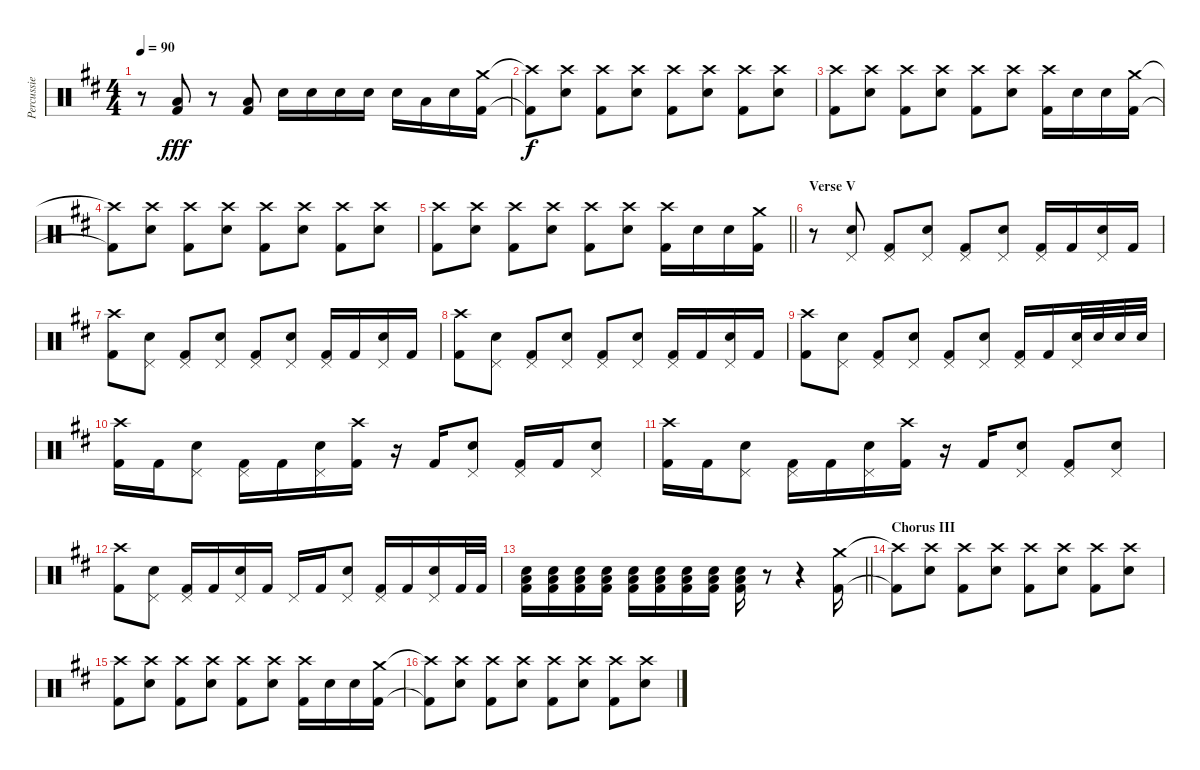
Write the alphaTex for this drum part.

\track ("Percussie" "Percussie") {instrument percussion}
\staff {score}
\articulation defaults
\ts (4 4)
\tempo 90
\clef neutral
\ks bminor
r.8{dy fff} ("Low Floor Tom (hit)" "Kick (hit) 2").8 r.8 ("Low Floor Tom (hit)" "Kick (hit) 2").8 "Electric Snare (hit)".16 "Electric Snare (hit)".16 "Electric Snare (hit)".16 "Electric Snare (hit)".16 "Electric Snare (hit)".16 "Low Floor Tom (hit)".16 "Electric Snare (hit)".16 ("Crash medium (hit)" "Kick (hit) 2").16 |
("Crash high (hit)"{t} "Kick (hit) 2"{t}).8{dy f} ("Crash high (hit)" "Electric Snare (hit)").8 ("Crash high (hit)" "Kick (hit) 2").8 ("Crash high (hit)" "Electric Snare (hit)").8 ("Crash high (hit)" "Kick (hit) 2").8 ("Crash high (hit)" "Electric Snare (hit)").8 ("Crash high (hit)" "Kick (hit) 2").8 ("Crash high (hit)" "Electric Snare (hit)").8 |
("Crash high (hit)" "Kick (hit) 2").8 ("Crash high (hit)" "Electric Snare (hit)").8 ("Crash high (hit)" "Kick (hit) 2").8 ("Crash high (hit)" "Electric Snare (hit)").8 ("Crash high (hit)" "Kick (hit) 2").8 ("Crash high (hit)" "Electric Snare (hit)").8 ("Crash high (hit)" "Kick (hit) 2").16 "Electric Snare (hit)".16 "Electric Snare (hit)".16 ("Crash medium (hit)" "Kick (hit) 2").16 |
("Crash high (hit)"{t} "Kick (hit) 2"{t}).8 ("Crash high (hit)" "Electric Snare (hit)").8 ("Crash high (hit)" "Kick (hit) 2").8 ("Crash high (hit)" "Electric Snare (hit)").8 ("Crash high (hit)" "Kick (hit) 2").8 ("Crash high (hit)" "Electric Snare (hit)").8 ("Crash high (hit)" "Kick (hit) 2").8 ("Crash high (hit)" "Electric Snare (hit)").8 |
\barLineRight lightlight
("Crash high (hit)" "Kick (hit) 2").8 ("Crash high (hit)" "Electric Snare (hit)").8 ("Crash high (hit)" "Kick (hit) 2").8 ("Crash high (hit)" "Electric Snare (hit)").8 ("Crash high (hit)" "Kick (hit) 2").8 ("Crash high (hit)" "Electric Snare (hit)").8 ("Crash high (hit)" "Kick (hit) 2").16 "Electric Snare (hit)".16 "Electric Snare (hit)".16 ("Crash medium (hit)" "Kick (hit) 2").16 |
\section ("" "Verse V")
r.8 ("Pedal Hi-Hat (hit)" "Electric Snare (hit)").8 ("Pedal Hi-Hat (hit)" "Kick (hit) 2").8 ("Pedal Hi-Hat (hit)" "Electric Snare (hit)").8 ("Pedal Hi-Hat (hit)" "Kick (hit) 2").8 ("Pedal Hi-Hat (hit)" "Electric Snare (hit)").8 ("Pedal Hi-Hat (hit)" "Kick (hit) 2").16 "Kick (hit) 2".16 ("Pedal Hi-Hat (hit)" "Electric Snare (hit)").16 "Kick (hit) 2".16 |
("Crash high (hit)" "Kick (hit) 2").8 ("Pedal Hi-Hat (hit)" "Electric Snare (hit)").8 ("Pedal Hi-Hat (hit)" "Kick (hit) 2").8 ("Pedal Hi-Hat (hit)" "Electric Snare (hit)").8 ("Pedal Hi-Hat (hit)" "Kick (hit) 2").8 ("Pedal Hi-Hat (hit)" "Electric Snare (hit)").8 ("Pedal Hi-Hat (hit)" "Kick (hit) 2").16 "Kick (hit) 2".16 ("Pedal Hi-Hat (hit)" "Electric Snare (hit)").16 "Kick (hit) 2".16 |
("Crash high (hit)" "Kick (hit) 2").8 ("Pedal Hi-Hat (hit)" "Electric Snare (hit)").8 ("Pedal Hi-Hat (hit)" "Kick (hit) 2").8 ("Pedal Hi-Hat (hit)" "Electric Snare (hit)").8 ("Pedal Hi-Hat (hit)" "Kick (hit) 2").8 ("Pedal Hi-Hat (hit)" "Electric Snare (hit)").8 ("Pedal Hi-Hat (hit)" "Kick (hit) 2").16 "Kick (hit) 2".16 ("Pedal Hi-Hat (hit)" "Electric Snare (hit)").16 "Kick (hit) 2".16 |
("Crash high (hit)" "Kick (hit) 2").8 ("Pedal Hi-Hat (hit)" "Electric Snare (hit)").8 ("Pedal Hi-Hat (hit)" "Kick (hit) 2").8 ("Pedal Hi-Hat (hit)" "Electric Snare (hit)").8 ("Pedal Hi-Hat (hit)" "Kick (hit) 2").8 ("Pedal Hi-Hat (hit)" "Electric Snare (hit)").8 ("Pedal Hi-Hat (hit)" "Kick (hit) 2").16 "Kick (hit) 2".16 ("Pedal Hi-Hat (hit)" "Electric Snare (hit)").32 "Electric Snare (hit)".32 "Electric Snare (hit)".32 "Electric Snare (hit)".32 |
("Crash high (hit)" "Kick (hit) 2").16 "Kick (hit) 2".16 ("Pedal Hi-Hat (hit)" "Electric Snare (hit)").8 ("Pedal Hi-Hat (hit)" "Kick (hit) 2").16 "Kick (hit) 2".16 ("Pedal Hi-Hat (hit)" "Electric Snare (hit)").16 ("Crash high (hit)" "Kick (hit) 2").16 r.16 "Kick (hit) 2".16 ("Pedal Hi-Hat (hit)" "Electric Snare (hit)").8 ("Pedal Hi-Hat (hit)" "Kick (hit) 2").16 "Kick (hit) 2".16 ("Pedal Hi-Hat (hit)" "Electric Snare (hit)").8 |
("Crash high (hit)" "Kick (hit) 2").16 "Kick (hit) 2".16 ("Pedal Hi-Hat (hit)" "Electric Snare (hit)").8 ("Pedal Hi-Hat (hit)" "Kick (hit) 2").16 "Kick (hit) 2".16 ("Pedal Hi-Hat (hit)" "Electric Snare (hit)").16 ("Crash high (hit)" "Kick (hit) 2").16 r.16 "Kick (hit) 2".16 ("Pedal Hi-Hat (hit)" "Electric Snare (hit)").8 ("Pedal Hi-Hat (hit)" "Kick (hit) 2").8 ("Pedal Hi-Hat (hit)" "Electric Snare (hit)").8 |
("Crash high (hit)" "Kick (hit) 2").8 ("Pedal Hi-Hat (hit)" "Electric Snare (hit)").8 ("Pedal Hi-Hat (hit)" "Kick (hit) 2").16 "Kick (hit) 2".16 ("Pedal Hi-Hat (hit)" "Electric Snare (hit)").16 "Kick (hit) 2".16 "Pedal Hi-Hat (hit)".16 "Kick (hit) 2".16 ("Pedal Hi-Hat (hit)" "Electric Snare (hit)").8 ("Pedal Hi-Hat (hit)" "Kick (hit) 2").16 "Kick (hit) 2".16 ("Pedal Hi-Hat (hit)" "Electric Snare (hit)").16 "Kick (hit) 2".32 "Kick (hit) 2".32 |
\barLineRight lightlight
("Electric Snare (hit)" "Low Floor Tom (hit)" "Kick (hit) 2").16 ("Electric Snare (hit)" "Low Floor Tom (hit)" "Kick (hit) 2").16 ("Electric Snare (hit)" "Low Floor Tom (hit)" "Kick (hit) 2").16 ("Electric Snare (hit)" "Low Floor Tom (hit)" "Kick (hit) 2").16 ("Electric Snare (hit)" "Low Floor Tom (hit)" "Kick (hit) 2").16 ("Electric Snare (hit)" "Low Floor Tom (hit)" "Kick (hit) 2").16 ("Electric Snare (hit)" "Low Floor Tom (hit)" "Kick (hit) 2").16 ("Electric Snare (hit)" "Low Floor Tom (hit)" "Kick (hit) 2").16 ("Electric Snare (hit)" "Low Floor Tom (hit)" "Kick (hit) 2").16 r.8 r.4 ("Crash medium (hit)" "Kick (hit) 2").16 |
\section ("" "Chorus III")
("Crash high (hit)"{t} "Kick (hit) 2"{t}).8 ("Crash high (hit)" "Electric Snare (hit)").8 ("Crash high (hit)" "Kick (hit) 2").8 ("Crash high (hit)" "Electric Snare (hit)").8 ("Crash high (hit)" "Kick (hit) 2").8 ("Crash high (hit)" "Electric Snare (hit)").8 ("Crash high (hit)" "Kick (hit) 2").8 ("Crash high (hit)" "Electric Snare (hit)").8 |
("Crash high (hit)" "Kick (hit) 2").8 ("Crash high (hit)" "Electric Snare (hit)").8 ("Crash high (hit)" "Kick (hit) 2").8 ("Crash high (hit)" "Electric Snare (hit)").8 ("Crash high (hit)" "Kick (hit) 2").8 ("Crash high (hit)" "Electric Snare (hit)").8 ("Crash high (hit)" "Kick (hit) 2").16 "Electric Snare (hit)".16 "Electric Snare (hit)".16 ("Crash medium (hit)" "Kick (hit) 2").16 |
("Crash high (hit)"{t} "Kick (hit) 2"{t}).8 ("Crash high (hit)" "Electric Snare (hit)").8 ("Crash high (hit)" "Kick (hit) 2").8 ("Crash high (hit)" "Electric Snare (hit)").8 ("Crash high (hit)" "Kick (hit) 2").8 ("Crash high (hit)" "Electric Snare (hit)").8 ("Crash high (hit)" "Kick (hit) 2").8 ("Crash high (hit)" "Electric Snare (hit)").8
